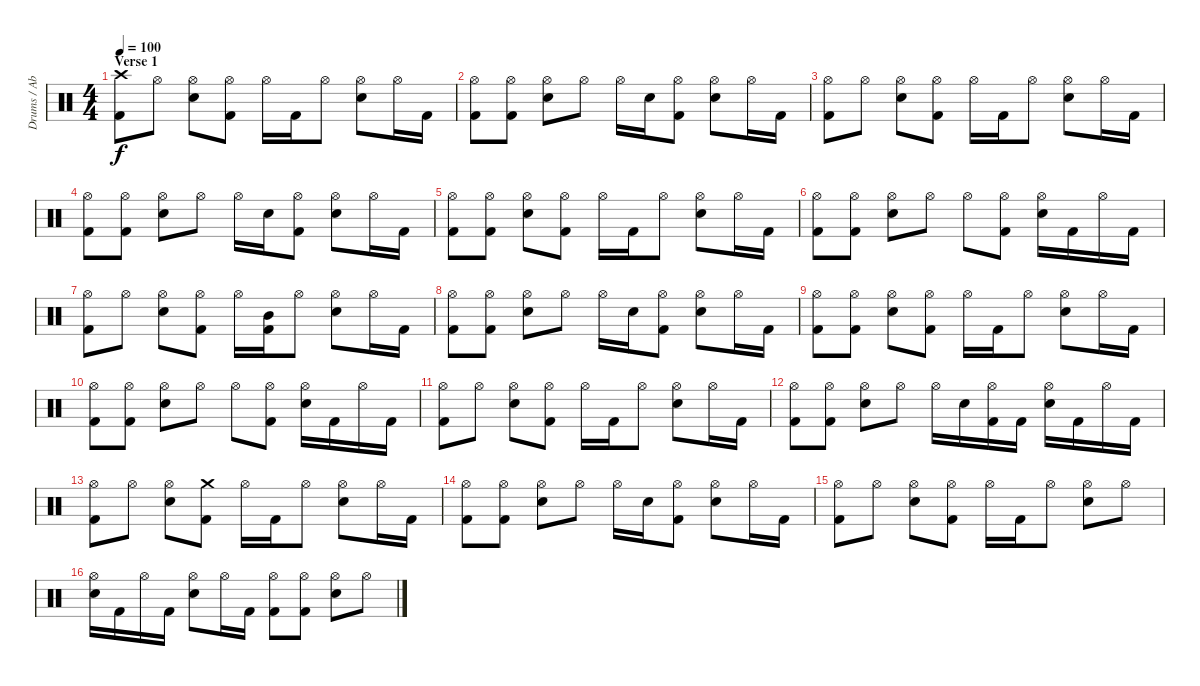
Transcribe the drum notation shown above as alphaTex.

\track ("Drums / Abe Cunningham" "Drums / Ab") {instrument percussion}
\staff {score}
\articulation defaults
\ts (4 4)
\section ("" "Verse 1")
\tempo 100
\clef neutral
\ks c
("Crash high (hit)" "Kick (hit) 2").8{dy f} "Hi-Hat (open)".8 ("Hi-Hat (open)" "Electric Snare (hit)").8 ("Hi-Hat (open)" "Kick (hit) 2").8 "Hi-Hat (open)".16 "Kick (hit) 2".16 "Hi-Hat (open)".8 ("Hi-Hat (open)" "Electric Snare (hit)").8 "Hi-Hat (open)".16 "Kick (hit) 2".16 |
("Hi-Hat (open)" "Kick (hit) 2").8 ("Hi-Hat (open)" "Kick (hit) 2").8 ("Hi-Hat (open)" "Electric Snare (hit)").8 "Hi-Hat (open)".8 "Hi-Hat (open)".16 "Electric Snare (hit)".16 ("Hi-Hat (open)" "Kick (hit) 2").8 ("Hi-Hat (open)" "Electric Snare (hit)").8 "Hi-Hat (open)".16 "Kick (hit) 2".16 |
("Hi-Hat (open)" "Kick (hit) 2").8 "Hi-Hat (open)".8 ("Hi-Hat (open)" "Electric Snare (hit)").8 ("Hi-Hat (open)" "Kick (hit) 2").8 "Hi-Hat (open)".16 "Kick (hit) 2".16 "Hi-Hat (open)".8 ("Hi-Hat (open)" "Electric Snare (hit)").8 "Hi-Hat (open)".16 "Kick (hit) 2".16 |
("Hi-Hat (open)" "Kick (hit) 2").8 ("Hi-Hat (open)" "Kick (hit) 2").8 ("Hi-Hat (open)" "Electric Snare (hit)").8 "Hi-Hat (open)".8 "Hi-Hat (open)".16 "Electric Snare (hit)".16 ("Hi-Hat (open)" "Kick (hit) 2").8 ("Hi-Hat (open)" "Electric Snare (hit)").8 "Hi-Hat (open)".16 "Kick (hit) 2".16 |
("Hi-Hat (open)" "Kick (hit) 2").8 ("Hi-Hat (open)" "Kick (hit) 2").8 ("Hi-Hat (open)" "Electric Snare (hit)").8 ("Hi-Hat (open)" "Kick (hit) 2").8 "Hi-Hat (open)".16 "Kick (hit) 2".16 "Hi-Hat (open)".8 ("Hi-Hat (open)" "Electric Snare (hit)").8 "Hi-Hat (open)".16 "Kick (hit) 2".16 |
("Hi-Hat (open)" "Kick (hit) 2").8 ("Hi-Hat (open)" "Kick (hit) 2").8 ("Hi-Hat (open)" "Electric Snare (hit)").8 "Hi-Hat (open)".8 "Hi-Hat (open)".8 ("Hi-Hat (open)" "Kick (hit) 2").8 ("Hi-Hat (open)" "Electric Snare (hit)").16 "Kick (hit) 2".16 "Hi-Hat (open)".16 "Kick (hit) 2".16 |
("Hi-Hat (open)" "Kick (hit) 2").8 "Hi-Hat (open)".8 ("Hi-Hat (open)" "Electric Snare (hit)").8 ("Hi-Hat (open)" "Kick (hit) 2").8 "Hi-Hat (open)".16 ("Mid Tom (hit)" "Kick (hit) 2").16 "Hi-Hat (open)".8 ("Hi-Hat (open)" "Electric Snare (hit)").8 "Hi-Hat (open)".16 "Kick (hit) 2".16 |
("Hi-Hat (open)" "Kick (hit) 2").8 ("Hi-Hat (open)" "Kick (hit) 2").8 ("Hi-Hat (open)" "Electric Snare (hit)").8 "Hi-Hat (open)".8 "Hi-Hat (open)".16 "Electric Snare (hit)".16 ("Hi-Hat (open)" "Kick (hit) 2").8 ("Hi-Hat (open)" "Electric Snare (hit)").8 "Hi-Hat (open)".16 "Kick (hit) 2".16 |
("Hi-Hat (open)" "Kick (hit) 2").8 ("Hi-Hat (open)" "Kick (hit) 2").8 ("Hi-Hat (open)" "Electric Snare (hit)").8 ("Hi-Hat (open)" "Kick (hit) 2").8 "Hi-Hat (open)".16 "Kick (hit) 2".16 "Hi-Hat (open)".8 ("Hi-Hat (open)" "Electric Snare (hit)").8 "Hi-Hat (open)".16 "Kick (hit) 2".16 |
("Hi-Hat (open)" "Kick (hit) 2").8 ("Hi-Hat (open)" "Kick (hit) 2").8 ("Hi-Hat (open)" "Electric Snare (hit)").8 "Hi-Hat (open)".8 "Hi-Hat (open)".8 ("Hi-Hat (open)" "Kick (hit) 2").8 ("Hi-Hat (open)" "Electric Snare (hit)").16 "Kick (hit) 2".16 "Hi-Hat (open)".16 "Kick (hit) 2".16 |
("Hi-Hat (open)" "Kick (hit) 2").8 "Hi-Hat (open)".8 ("Hi-Hat (open)" "Electric Snare (hit)").8 ("Hi-Hat (open)" "Kick (hit) 2").8 "Hi-Hat (open)".16 "Kick (hit) 2".16 "Hi-Hat (open)".8 ("Hi-Hat (open)" "Electric Snare (hit)").8 "Hi-Hat (open)".16 "Kick (hit) 2".16 |
("Hi-Hat (open)" "Kick (hit) 2").8 ("Hi-Hat (open)" "Kick (hit) 2").8 ("Hi-Hat (open)" "Electric Snare (hit)").8 "Hi-Hat (open)".8 "Hi-Hat (open)".16 "Electric Snare (hit)".16 ("Hi-Hat (open)" "Kick (hit) 2").16 "Kick (hit) 2".16 ("Hi-Hat (open)" "Electric Snare (hit)").16 "Kick (hit) 2".16 "Hi-Hat (open)".16 "Kick (hit) 2".16 |
("Hi-Hat (open)" "Kick (hit) 2").8 "Hi-Hat (open)".8 ("Hi-Hat (open)" "Electric Snare (hit)").8 ("Crash medium (hit)" "Kick (hit) 2").8 "Hi-Hat (open)".16 "Kick (hit) 2".16 "Hi-Hat (open)".8 ("Hi-Hat (open)" "Electric Snare (hit)").8 "Hi-Hat (open)".16 "Kick (hit) 2".16 |
("Hi-Hat (open)" "Kick (hit) 2").8 ("Hi-Hat (open)" "Kick (hit) 2").8 ("Hi-Hat (open)" "Electric Snare (hit)").8 "Hi-Hat (open)".8 "Hi-Hat (open)".16 "Electric Snare (hit)".16 ("Hi-Hat (open)" "Kick (hit) 2").8 ("Hi-Hat (open)" "Electric Snare (hit)").8 "Hi-Hat (open)".16 "Kick (hit) 2".16 |
("Hi-Hat (open)" "Kick (hit) 2").8 "Hi-Hat (open)".8 ("Hi-Hat (open)" "Electric Snare (hit)").8 ("Hi-Hat (open)" "Kick (hit) 2").8 "Hi-Hat (open)".16 "Kick (hit) 2".16 "Hi-Hat (open)".8 ("Hi-Hat (open)" "Electric Snare (hit)").8 "Hi-Hat (open)".8 |
("Hi-Hat (open)" "Electric Snare (hit)").16 "Kick (hit) 2".16 "Hi-Hat (open)".16 "Kick (hit) 2".16 ("Hi-Hat (open)" "Electric Snare (hit)").8 "Hi-Hat (open)".16 "Kick (hit) 2".16 ("Hi-Hat (open)" "Kick (hit) 2").8 ("Hi-Hat (open)" "Kick (hit) 2").8 ("Hi-Hat (open)" "Electric Snare (hit)").8 "Hi-Hat (open)".8
